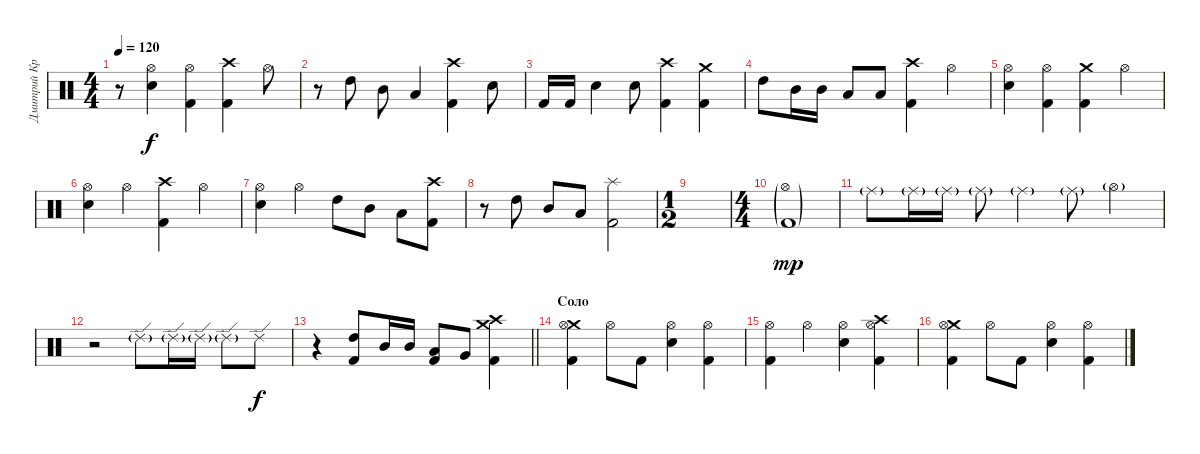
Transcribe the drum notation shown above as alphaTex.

\track ("Дмитрий Кривенков       (Ударные)" "Дмитрий Кр") {instrument percussion}
\staff {score}
\articulation defaults
\ts (4 4)
\tempo 120
\clef neutral
\ks c
r.8{dy f} ("Hi-Hat (open)" "Electric Snare (hit)").4 ("Hi-Hat (open)" "Kick (hit) 2").4 ("Crash high (hit)" "Kick (hit) 2").4 "Hi-Hat (open)".8 |
r.8 "High Tom (hit)".8 "Mid Tom (hit)".8 "Low Tom (hit)".4 ("Crash high (hit)" "Kick (hit) 2").4 "Electric Snare (hit)".8 |
"Kick (hit) 2".16 "Kick (hit) 2".16 "Electric Snare (hit)".4 "Electric Snare (hit)".8 ("Crash high (hit)" "Kick (hit) 2").4 ("Crash medium (hit)" "Kick (hit) 2").4 |
"High Tom (hit)".8 "Mid Tom (hit)".16 "Mid Tom (hit)".16 "Low Tom (hit)".8 "Low Tom (hit)".8 ("Crash high (hit)" "Kick (hit) 2").4 "Hi-Hat (open)".4 |
("Hi-Hat (open)" "Electric Snare (hit)").4 ("Hi-Hat (open)" "Kick (hit) 2").4 ("Crash medium (hit)" "Kick (hit) 2").4 "Hi-Hat (open)".4 |
("Hi-Hat (open)" "Electric Snare (hit)").4 "Hi-Hat (open)".4 ("Crash high (hit)" "Kick (hit) 2").4 "Hi-Hat (open)".4 |
("Hi-Hat (open)" "Electric Snare (hit)").4 "Hi-Hat (open)".4 "High Tom (hit)".8 "Mid Tom (hit)".8 "Low Tom (hit)".8 ("Crash high (hit)" "Kick (hit) 2").8 |
r.8 "High Tom (hit)".8 "Mid Tom (hit)".8 "Low Tom (hit)".8 ("Splash (hit)" "Kick (hit) 2").2 |
\ts (1 2)
|
\ts (4 4)
("Hi-Hat (open)"{g} "Kick (hit) 2"{g}).1{dy mp} |
"Ride (middle)"{g}.8 "Ride (middle)"{g}.16 "Ride (middle)"{g}.16 "Ride (middle)"{g}.8 "Ride (middle)"{g}.4 "Ride (middle)"{g}.8 "Hi-Hat (open)"{g}.4 |
r.2 "Ride (edge) 2"{g}.8 "Ride (edge) 2"{g}.16 "Ride (edge) 2"{g}.16 "Ride (edge) 2"{g}.8 "Ride (edge) 2".8{dy f} |
\barLineRight lightlight
r.4 ("High Tom (hit)" "Kick (hit) 2").8 "Mid Tom (hit)".16 "Mid Tom (hit)".16 ("Low Tom (hit)" "Kick (hit) 2").8 "Very Low Tom (hit)".8 ("Crash medium (hit)" "Crash high (hit)" "Kick (hit) 2").4 |
\section ("" "Соло")
("Crash medium (hit)" "Hi-Hat (open)" "Kick (hit) 2").4 "Hi-Hat (open)".8 "Kick (hit) 2".8 ("Hi-Hat (open)" "Electric Snare (hit)").4 ("Hi-Hat (open)" "Kick (hit) 2").4 |
("Hi-Hat (open)" "Kick (hit) 2").4 "Hi-Hat (open)".4 ("Hi-Hat (open)" "Electric Snare (hit)").4 ("Crash high (hit)" "Hi-Hat (open)" "Kick (hit) 2").4 |
("Crash medium (hit)" "Hi-Hat (open)" "Kick (hit) 2").4 "Hi-Hat (open)".8 "Kick (hit) 2".8 ("Hi-Hat (open)" "Electric Snare (hit)").4 ("Hi-Hat (open)" "Kick (hit) 2").4
